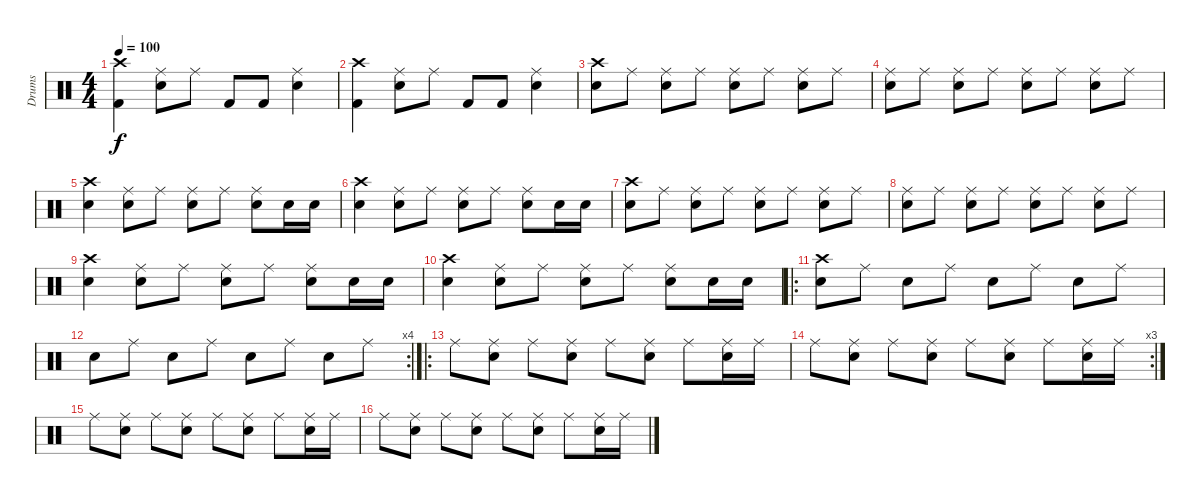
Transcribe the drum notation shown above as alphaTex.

\track ("Drums" "Drums") {instrument percussion}
\staff {score}
\articulation defaults
\ts (4 4)
\tempo 100
\clef neutral
\ks c
("Crash high (hit)" "Kick (hit) 2").4{dy f} ("Ride (middle)" "Snare (hit) 2").8 "Ride (middle)".8 "Kick (hit) 2".8 "Kick (hit) 2".8 ("Ride (middle)" "Snare (hit) 2").4 |
("Crash high (hit)" "Kick (hit) 2").4 ("Ride (middle)" "Snare (hit) 2").8 "Ride (middle)".8 "Kick (hit) 2".8 "Kick (hit) 2".8 ("Ride (middle)" "Snare (hit) 2").4 |
("Crash high (hit)" "Snare (hit) 2").8 "Ride (middle)".8 ("Ride (middle)" "Snare (hit) 2").8 "Ride (middle)".8 ("Ride (middle)" "Snare (hit) 2").8 "Ride (middle)".8 ("Ride (middle)" "Snare (hit) 2").8 "Ride (middle)".8 |
("Ride (middle)" "Snare (hit) 2").8 "Ride (middle)".8 ("Ride (middle)" "Snare (hit) 2").8 "Ride (middle)".8 ("Ride (middle)" "Snare (hit) 2").8 "Ride (middle)".8 ("Ride (middle)" "Snare (hit) 2").8 "Ride (middle)".8 |
("Crash high (hit)" "Snare (hit) 2").4 ("Ride (middle)" "Snare (hit) 2").8 "Ride (middle)".8 ("Ride (middle)" "Snare (hit) 2").8 "Ride (middle)".8 ("Ride (middle)" "Snare (hit) 2").8 "Snare (hit) 2".16 "Snare (hit) 2".16 |
("Crash high (hit)" "Snare (hit) 2").4 ("Ride (middle)" "Snare (hit) 2").8 "Ride (middle)".8 ("Ride (middle)" "Snare (hit) 2").8 "Ride (middle)".8 ("Ride (middle)" "Snare (hit) 2").8 "Snare (hit) 2".16 "Snare (hit) 2".16 |
("Crash high (hit)" "Snare (hit) 2").8 "Ride (middle)".8 ("Ride (middle)" "Snare (hit) 2").8 "Ride (middle)".8 ("Ride (middle)" "Snare (hit) 2").8 "Ride (middle)".8 ("Ride (middle)" "Snare (hit) 2").8 "Ride (middle)".8 |
("Ride (middle)" "Snare (hit) 2").8 "Ride (middle)".8 ("Ride (middle)" "Snare (hit) 2").8 "Ride (middle)".8 ("Ride (middle)" "Snare (hit) 2").8 "Ride (middle)".8 ("Ride (middle)" "Snare (hit) 2").8 "Ride (middle)".8 |
("Crash high (hit)" "Snare (hit) 2").4 ("Ride (middle)" "Snare (hit) 2").8 "Ride (middle)".8 ("Ride (middle)" "Snare (hit) 2").8 "Ride (middle)".8 ("Ride (middle)" "Snare (hit) 2").8 "Snare (hit) 2".16 "Snare (hit) 2".16 |
("Crash high (hit)" "Snare (hit) 2").4 ("Ride (middle)" "Snare (hit) 2").8 "Ride (middle)".8 ("Ride (middle)" "Snare (hit) 2").8 "Ride (middle)".8 ("Ride (middle)" "Snare (hit) 2").8 "Snare (hit) 2".16 "Snare (hit) 2".16 |
\ro
("Crash high (hit)" "Snare (hit) 2").8 "Ride (middle)".8 "Snare (hit) 2".8 "Ride (middle)".8 "Snare (hit) 2".8 "Ride (middle)".8 "Snare (hit) 2".8 "Ride (middle)".8 |
\rc 4 "Snare (hit) 2".8 "Ride (middle)".8 "Snare (hit) 2".8 "Ride (middle)".8 "Snare (hit) 2".8 "Ride (middle)".8 "Snare (hit) 2".8 "Ride (middle)".8
|
\ro "Ride (middle)".8
("Ride (middle)" "Snare (hit) 2").8 "Ride (middle)".8 ("Ride (middle)" "Snare (hit) 2").8 "Ride (middle)".8 ("Ride (middle)" "Snare (hit) 2").8 "Ride (middle)".8 ("Ride (middle)" "Snare (hit) 2").16 "Ride (middle)".16 |
\rc 3 "Ride (middle)".8
("Ride (middle)" "Snare (hit) 2").8 "Ride (middle)".8 ("Ride (middle)" "Snare (hit) 2").8 "Ride (middle)".8 ("Ride (middle)" "Snare (hit) 2").8 "Ride (middle)".8 ("Ride (middle)" "Snare (hit) 2").16 "Ride (middle)".16 |
"Ride (middle)".8 ("Ride (middle)" "Snare (hit) 2").8 "Ride (middle)".8 ("Ride (middle)" "Snare (hit) 2").8 "Ride (middle)".8 ("Ride (middle)" "Snare (hit) 2").8 "Ride (middle)".8 ("Ride (middle)" "Snare (hit) 2").16 "Ride (middle)".16 |
"Ride (middle)".8 ("Ride (middle)" "Snare (hit) 2").8 "Ride (middle)".8 ("Ride (middle)" "Snare (hit) 2").8 "Ride (middle)".8 ("Ride (middle)" "Snare (hit) 2").8 "Ride (middle)".8 ("Ride (middle)" "Snare (hit) 2").16 "Ride (middle)".16
